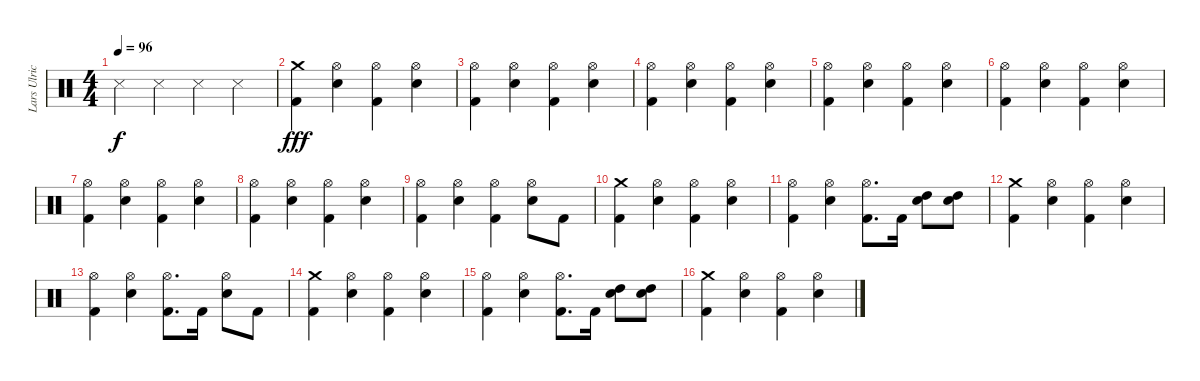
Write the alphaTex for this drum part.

\track ("Lars Ulrich" "Lars Ulric") {instrument percussion}
\staff {score}
\articulation defaults
\ts (4 4)
\tempo 96
\clef neutral
\ks c "Snare (side stick) 3".4{dy f} "Snare (side stick) 3".4 "Snare (side stick) 3".4 "Snare (side stick) 3".4
|
("Kick (hit) 2" "Crash medium (hit)").4{dy fff} ("Hi-Hat (open)" "Snare (hit) 2").4 ("Hi-Hat (open)" "Kick (hit) 2").4 ("Hi-Hat (open)" "Snare (hit) 2").4 |
("Hi-Hat (open)" "Kick (hit) 2").4 ("Hi-Hat (open)" "Snare (hit) 2").4 ("Hi-Hat (open)" "Kick (hit) 2").4 ("Hi-Hat (open)" "Snare (hit) 2").4 |
("Hi-Hat (open)" "Kick (hit) 2").4 ("Hi-Hat (open)" "Snare (hit) 2").4 ("Hi-Hat (open)" "Kick (hit) 2").4 ("Hi-Hat (open)" "Snare (hit) 2").4 |
("Hi-Hat (open)" "Kick (hit) 2").4 ("Hi-Hat (open)" "Snare (hit) 2").4 ("Hi-Hat (open)" "Kick (hit) 2").4 ("Hi-Hat (open)" "Snare (hit) 2").4 |
("Hi-Hat (open)" "Kick (hit) 2").4 ("Hi-Hat (open)" "Snare (hit) 2").4 ("Hi-Hat (open)" "Kick (hit) 2").4 ("Hi-Hat (open)" "Snare (hit) 2").4 |
("Hi-Hat (open)" "Kick (hit) 2").4 ("Hi-Hat (open)" "Snare (hit) 2").4 ("Hi-Hat (open)" "Kick (hit) 2").4 ("Hi-Hat (open)" "Snare (hit) 2").4 |
("Hi-Hat (open)" "Kick (hit) 2").4 ("Hi-Hat (open)" "Snare (hit) 2").4 ("Hi-Hat (open)" "Kick (hit) 2").4 ("Hi-Hat (open)" "Snare (hit) 2").4 |
("Hi-Hat (open)" "Kick (hit) 2").4 ("Hi-Hat (open)" "Snare (hit) 2").4 ("Hi-Hat (open)" "Kick (hit) 2").4 ("Hi-Hat (open)" "Snare (hit) 2").8 "Kick (hit) 2".8 |
("Kick (hit) 2" "Crash medium (hit)").4 ("Hi-Hat (open)" "Snare (hit) 2").4 ("Hi-Hat (open)" "Kick (hit) 2").4 ("Hi-Hat (open)" "Snare (hit) 2").4 |
("Hi-Hat (open)" "Kick (hit) 2").4 ("Hi-Hat (open)" "Snare (hit) 2").4 ("Hi-Hat (open)" "Kick (hit) 2").8{d} "Kick (hit) 2".16 ("Snare (hit) 2" "High Tom (hit)").8 ("Snare (hit) 2" "High Tom (hit)").8 |
("Kick (hit) 2" "Crash medium (hit)").4 ("Hi-Hat (open)" "Snare (hit) 2").4 ("Hi-Hat (open)" "Kick (hit) 2").4 ("Hi-Hat (open)" "Snare (hit) 2").4 |
("Hi-Hat (open)" "Kick (hit) 2").4 ("Hi-Hat (open)" "Snare (hit) 2").4 ("Hi-Hat (open)" "Kick (hit) 2").8{d} "Kick (hit) 2".16 ("Hi-Hat (open)" "Snare (hit) 2").8 "Kick (hit) 2".8 |
("Kick (hit) 2" "Crash medium (hit)").4 ("Hi-Hat (open)" "Snare (hit) 2").4 ("Hi-Hat (open)" "Kick (hit) 2").4 ("Hi-Hat (open)" "Snare (hit) 2").4 |
("Hi-Hat (open)" "Kick (hit) 2").4 ("Hi-Hat (open)" "Snare (hit) 2").4 ("Hi-Hat (open)" "Kick (hit) 2").8{d} "Kick (hit) 2".16 ("Snare (hit) 2" "High Tom (hit)").8 ("Snare (hit) 2" "High Tom (hit)").8 |
("Kick (hit) 2" "Crash medium (hit)").4 ("Hi-Hat (open)" "Snare (hit) 2").4 ("Hi-Hat (open)" "Kick (hit) 2").4 ("Hi-Hat (open)" "Snare (hit) 2").4
